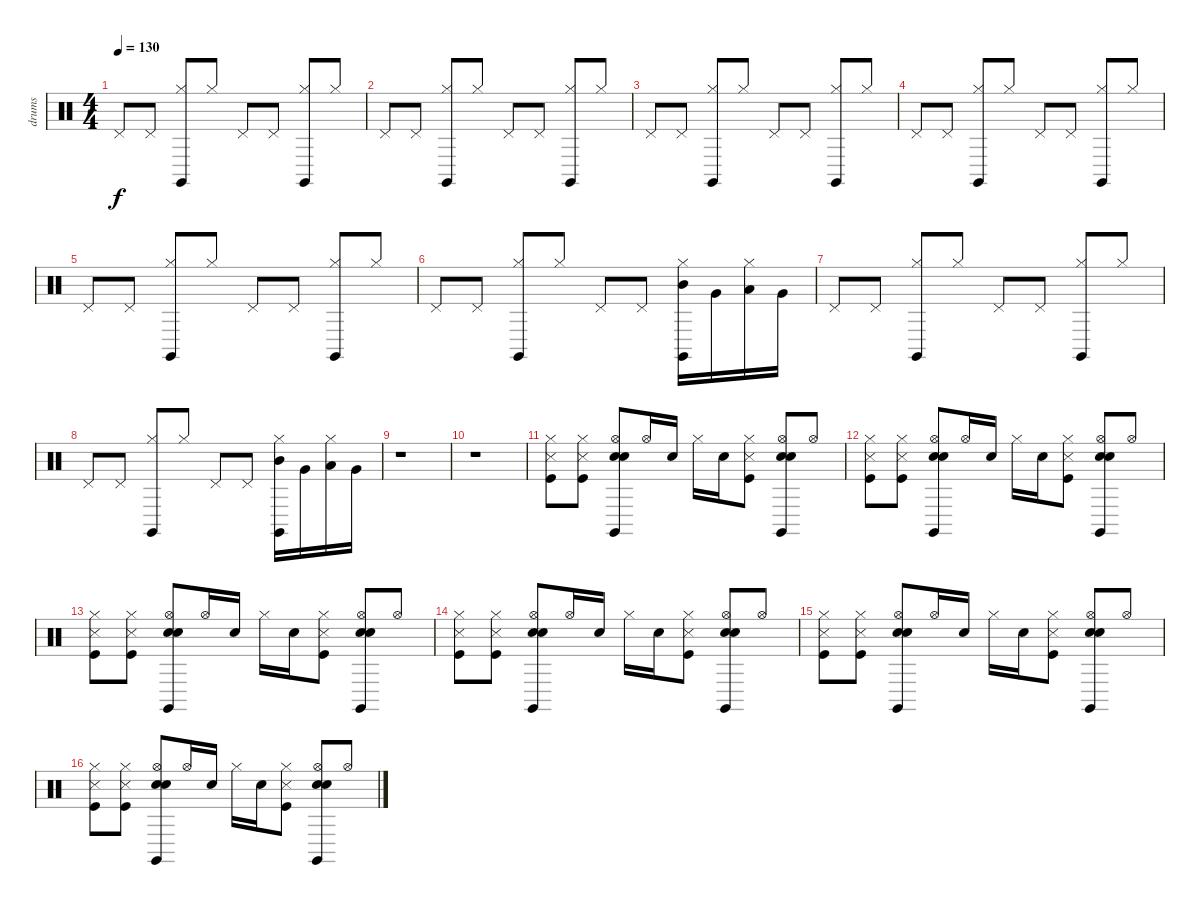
\track ("drums" "drums") {instrument percussion}
\staff {score}
\articulation defaults
\ts (4 4)
\tempo 130
\clef neutral
\ks c "Pedal Hi-Hat (hit)".8{dy f} "Pedal Hi-Hat (hit)".8
("Hi-Hat (closed)" "Claves (hit)").8 "Hi-Hat (closed)".8 "Pedal Hi-Hat (hit)".8 "Pedal Hi-Hat (hit)".8 ("Hi-Hat (closed)" "Claves (hit)").8 "Hi-Hat (closed)".8 |
"Pedal Hi-Hat (hit)".8 "Pedal Hi-Hat (hit)".8 ("Hi-Hat (closed)" "Claves (hit)").8 "Hi-Hat (closed)".8 "Pedal Hi-Hat (hit)".8 "Pedal Hi-Hat (hit)".8 ("Hi-Hat (closed)" "Claves (hit)").8 "Hi-Hat (closed)".8 |
"Pedal Hi-Hat (hit)".8 "Pedal Hi-Hat (hit)".8 ("Hi-Hat (closed)" "Claves (hit)").8 "Hi-Hat (closed)".8 "Pedal Hi-Hat (hit)".8 "Pedal Hi-Hat (hit)".8 ("Hi-Hat (closed)" "Claves (hit)").8 "Hi-Hat (closed)".8 |
"Pedal Hi-Hat (hit)".8 "Pedal Hi-Hat (hit)".8 ("Hi-Hat (closed)" "Claves (hit)").8 "Hi-Hat (closed)".8 "Pedal Hi-Hat (hit)".8 "Pedal Hi-Hat (hit)".8 ("Hi-Hat (closed)" "Claves (hit)").8 "Hi-Hat (closed)".8 |
"Pedal Hi-Hat (hit)".8 "Pedal Hi-Hat (hit)".8 ("Hi-Hat (closed)" "Claves (hit)").8 "Hi-Hat (closed)".8 "Pedal Hi-Hat (hit)".8 "Pedal Hi-Hat (hit)".8 ("Hi-Hat (closed)" "Claves (hit)").8 "Hi-Hat (closed)".8 |
"Pedal Hi-Hat (hit)".8 "Pedal Hi-Hat (hit)".8 ("Hi-Hat (closed)" "Claves (hit)").8 "Hi-Hat (closed)".8 "Pedal Hi-Hat (hit)".8 "Pedal Hi-Hat (hit)".8 ("Hi-Hat (closed)" "Claves (hit)" "Mid Tom (hit)").16 "Very Low Tom (hit)".16 ("Hi-Hat (closed)" "Low Floor Tom (hit)").16 "Very Low Tom (hit)".16 |
"Pedal Hi-Hat (hit)".8 "Pedal Hi-Hat (hit)".8 ("Hi-Hat (closed)" "Claves (hit)").8 "Hi-Hat (closed)".8 "Pedal Hi-Hat (hit)".8 "Pedal Hi-Hat (hit)".8 ("Hi-Hat (closed)" "Claves (hit)").8 "Hi-Hat (closed)".8 |
"Pedal Hi-Hat (hit)".8 "Pedal Hi-Hat (hit)".8 ("Hi-Hat (closed)" "Claves (hit)").8 "Hi-Hat (closed)".8 "Pedal Hi-Hat (hit)".8 "Pedal Hi-Hat (hit)".8 ("Hi-Hat (closed)" "Claves (hit)" "Mid Tom (hit)").16 "Very Low Tom (hit)".16 ("Hi-Hat (closed)" "Low Floor Tom (hit)").16 "Very Low Tom (hit)".16 |
r.1 |
r.1 |
("Hi-Hat (closed)" "Kick (hit)" "Metronome (hit)").8 ("Hi-Hat (closed)" "Kick (hit)" "Metronome (hit)").8 ("Hi-Hat (open)" "Electric Snare (hit)" "Snare (hit) 2" "Claves (hit)").8 "Hi-Hat (open)".16 "Snare (hit) 2".16 "Hi-Hat (closed)".16 "Snare (hit) 2".16 ("Hi-Hat (closed)" "Metronome (hit)" "Kick (hit)").8 ("Hi-Hat (open)" "Snare (hit) 2" "Electric Snare (hit)" "Claves (hit)").8 "Hi-Hat (open)".8 |
("Metronome (hit)" "Kick (hit)" "Hi-Hat (closed)").8 ("Hi-Hat (closed)" "Kick (hit)" "Metronome (hit)").8 ("Hi-Hat (open)" "Electric Snare (hit)" "Snare (hit) 2" "Claves (hit)").8 "Hi-Hat (open)".16 "Snare (hit) 2".16 "Hi-Hat (closed)".16 "Snare (hit) 2".16 ("Hi-Hat (closed)" "Metronome (hit)" "Kick (hit)").8 ("Hi-Hat (open)" "Snare (hit) 2" "Electric Snare (hit)" "Claves (hit)").8 "Hi-Hat (open)".8 |
("Metronome (hit)" "Kick (hit)" "Hi-Hat (closed)").8 ("Hi-Hat (closed)" "Kick (hit)" "Metronome (hit)").8 ("Hi-Hat (open)" "Electric Snare (hit)" "Snare (hit) 2" "Claves (hit)").8 "Hi-Hat (open)".16 "Snare (hit) 2".16 "Hi-Hat (closed)".16 "Snare (hit) 2".16 ("Hi-Hat (closed)" "Metronome (hit)" "Kick (hit)").8 ("Hi-Hat (open)" "Snare (hit) 2" "Electric Snare (hit)" "Claves (hit)").8 "Hi-Hat (open)".8 |
("Metronome (hit)" "Kick (hit)" "Hi-Hat (closed)").8 ("Hi-Hat (closed)" "Kick (hit)" "Metronome (hit)").8 ("Hi-Hat (open)" "Electric Snare (hit)" "Snare (hit) 2" "Claves (hit)").8 "Hi-Hat (open)".16 "Snare (hit) 2".16 "Hi-Hat (closed)".16 "Snare (hit) 2".16 ("Hi-Hat (closed)" "Metronome (hit)" "Kick (hit)").8 ("Hi-Hat (open)" "Snare (hit) 2" "Electric Snare (hit)" "Claves (hit)").8 "Hi-Hat (open)".8 |
("Metronome (hit)" "Kick (hit)" "Hi-Hat (closed)").8 ("Hi-Hat (closed)" "Kick (hit)" "Metronome (hit)").8 ("Hi-Hat (open)" "Electric Snare (hit)" "Snare (hit) 2" "Claves (hit)").8 "Hi-Hat (open)".16 "Snare (hit) 2".16 "Hi-Hat (closed)".16 "Snare (hit) 2".16 ("Hi-Hat (closed)" "Metronome (hit)" "Kick (hit)").8 ("Hi-Hat (open)" "Snare (hit) 2" "Electric Snare (hit)" "Claves (hit)").8 "Hi-Hat (open)".8 |
("Metronome (hit)" "Kick (hit)" "Hi-Hat (closed)").8 ("Hi-Hat (closed)" "Kick (hit)" "Metronome (hit)").8 ("Hi-Hat (open)" "Electric Snare (hit)" "Snare (hit) 2" "Claves (hit)").8 "Hi-Hat (open)".16 "Snare (hit) 2".16 "Hi-Hat (closed)".16 "Snare (hit) 2".16 ("Hi-Hat (closed)" "Metronome (hit)" "Kick (hit)").8 ("Hi-Hat (open)" "Snare (hit) 2" "Electric Snare (hit)" "Claves (hit)").8 "Hi-Hat (open)".8
